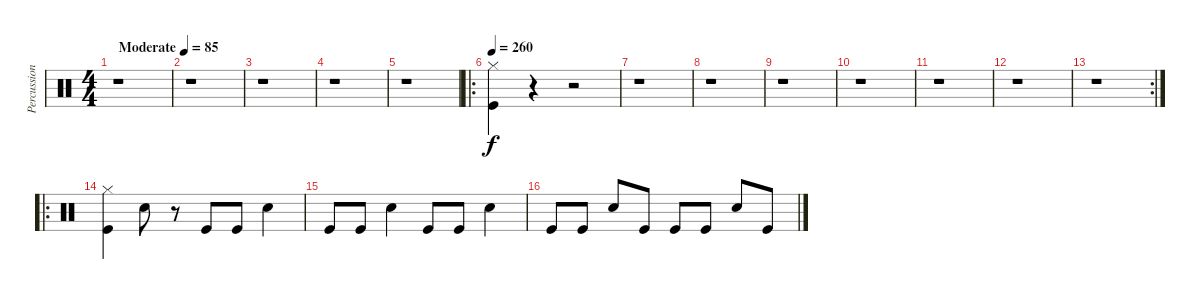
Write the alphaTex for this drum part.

\track ("Percussion" "Percussion") {instrument percussion}
\staff {score}
\articulation defaults
\ts (4 4)
\tempo (85 "Moderate")
\clef neutral
\ks c
r.1{dy f} |
r.1 |
r.1 |
r.1 |
r.1 |
\ro
\tempo 260
("Hi-Hat (closed)" "Kick (hit)").4 r.4 r.2 |
r.1 |
r.1 |
r.1 |
r.1 |
r.1 |
r.1 |
\rc 2
r.1 |
\ro
("Hi-Hat (closed)" "Kick (hit)").4 "Electric Snare (hit)".8 r.8 "Kick (hit)".8 "Kick (hit)".8 "Snare (hit) 2".4 |
"Kick (hit)".8 "Kick (hit)".8 "Electric Snare (hit)".4 "Kick (hit)".8 "Kick (hit)".8 "Electric Snare (hit)".4 |
"Kick (hit)".8 "Kick (hit)".8 "Electric Snare (hit)".8 "Kick (hit)".8 "Kick (hit)".8 "Kick (hit)".8 "Electric Snare (hit)".8 "Kick (hit)".8
